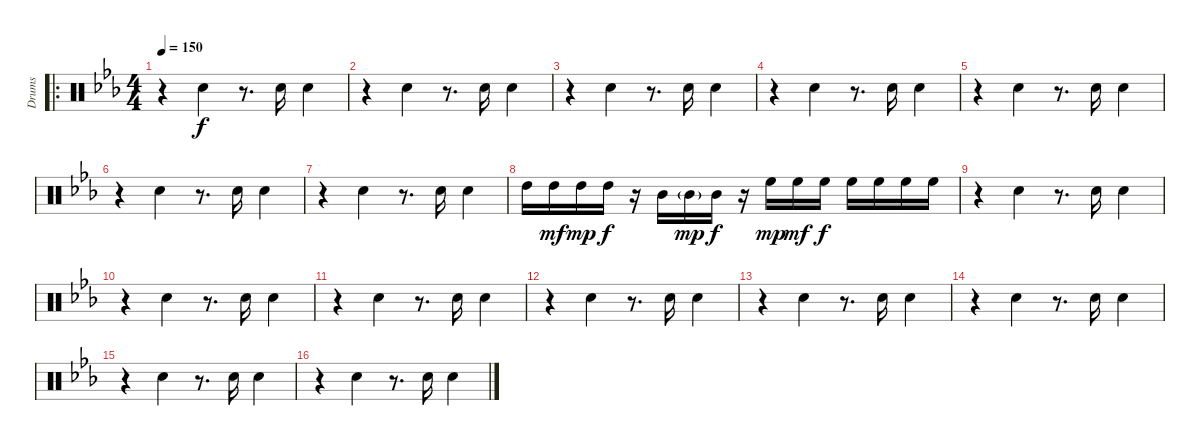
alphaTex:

\track ("Drums" "Drums") {instrument percussion}
\staff {score}
\articulation defaults
\ro
\ts (4 4)
\tempo 150
\clef neutral
\ks cminor
r.4{dy f} "Snare (hit) 2".4 r.8{d} "Snare (hit) 2".16 "Snare (hit) 2".4 |
r.4 "Snare (hit) 2".4 r.8{d} "Snare (hit) 2".16 "Snare (hit) 2".4 |
r.4 "Snare (hit) 2".4 r.8{d} "Snare (hit) 2".16 "Snare (hit) 2".4 |
r.4 "Snare (hit) 2".4 r.8{d} "Snare (hit) 2".16 "Snare (hit) 2".4 |
r.4 "Snare (hit) 2".4 r.8{d} "Snare (hit) 2".16 "Snare (hit) 2".4 |
r.4 "Snare (hit) 2".4 r.8{d} "Snare (hit) 2".16 "Snare (hit) 2".4 |
r.4 "Snare (hit) 2".4 r.8{d} "Snare (hit) 2".16 "Snare (hit) 2".4 |
"High Tom (hit)".16 "High Tom (hit)".16{dy mf} "High Tom (hit)".16{dy mp} "High Tom (hit)".16{dy f} r.16 "Mid Tom (hit)".16 "Mid Tom (hit)"{g}.16{dy mp} "Mid Tom (hit)".16{dy f} r.16 "High Floor Tom (hit)".16{dy mp} "High Floor Tom (hit)".16{dy mf} "High Floor Tom (hit)".16{dy f} "High Floor Tom (hit)".16 "High Floor Tom (hit)".16 "High Floor Tom (hit)".16 "High Floor Tom (hit)".16 |
r.4 "Snare (hit) 2".4 r.8{d} "Snare (hit) 2".16 "Snare (hit) 2".4 |
r.4 "Snare (hit) 2".4 r.8{d} "Snare (hit) 2".16 "Snare (hit) 2".4 |
r.4 "Snare (hit) 2".4 r.8{d} "Snare (hit) 2".16 "Snare (hit) 2".4 |
r.4 "Snare (hit) 2".4 r.8{d} "Snare (hit) 2".16 "Snare (hit) 2".4 |
r.4 "Snare (hit) 2".4 r.8{d} "Snare (hit) 2".16 "Snare (hit) 2".4 |
r.4 "Snare (hit) 2".4 r.8{d} "Snare (hit) 2".16 "Snare (hit) 2".4 |
r.4 "Snare (hit) 2".4 r.8{d} "Snare (hit) 2".16 "Snare (hit) 2".4 |
r.4 "Snare (hit) 2".4 r.8{d} "Snare (hit) 2".16 "Snare (hit) 2".4
